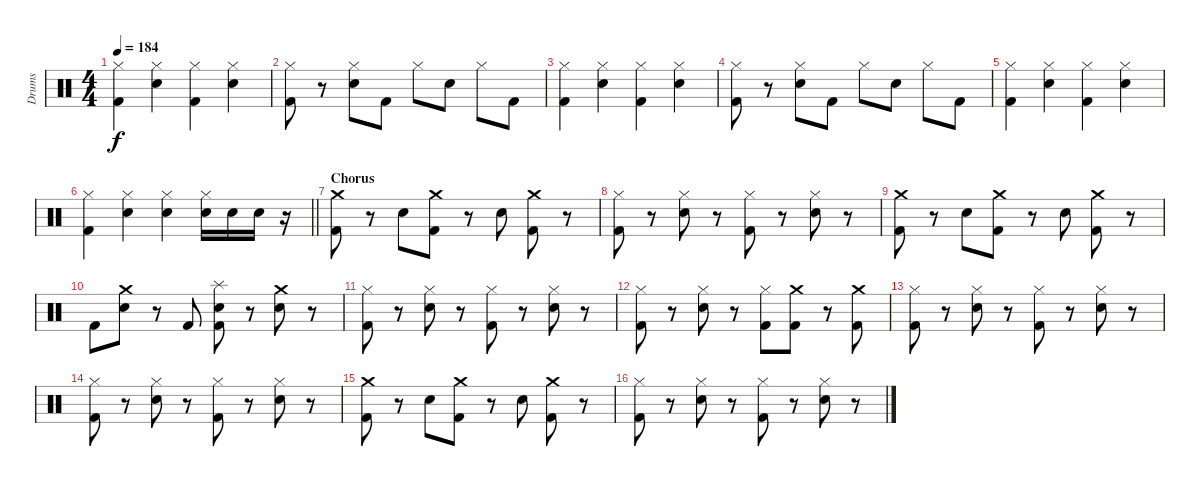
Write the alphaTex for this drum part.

\track ("Drums" "Drums") {instrument percussion}
\staff {score}
\articulation defaults
\ts (4 4)
\tempo 184
\clef neutral
\ks c
("Hi-Hat (closed)" "Kick (hit) 2").4{dy f} ("Hi-Hat (closed)" "Snare (hit) 2").4 ("Hi-Hat (closed)" "Kick (hit) 2").4 ("Hi-Hat (closed)" "Snare (hit) 2").4 |
("Hi-Hat (closed)" "Kick (hit) 2").8 r.8 ("Hi-Hat (closed)" "Snare (hit) 2").8 "Kick (hit) 2".8 "Hi-Hat (closed)".8 "Snare (hit) 2".8 "Hi-Hat (closed)".8 "Kick (hit) 2".8 |
("Hi-Hat (closed)" "Kick (hit) 2").4 ("Hi-Hat (closed)" "Snare (hit) 2").4 ("Hi-Hat (closed)" "Kick (hit) 2").4 ("Hi-Hat (closed)" "Snare (hit) 2").4 |
("Hi-Hat (closed)" "Kick (hit) 2").8 r.8 ("Hi-Hat (closed)" "Snare (hit) 2").8 "Kick (hit) 2".8 "Hi-Hat (closed)".8 "Snare (hit) 2".8 "Hi-Hat (closed)".8 "Kick (hit) 2".8 |
("Hi-Hat (closed)" "Kick (hit) 2").4 ("Hi-Hat (closed)" "Snare (hit) 2").4 ("Hi-Hat (closed)" "Kick (hit) 2").4 ("Hi-Hat (closed)" "Snare (hit) 2").4 |
\barLineRight lightlight
("Hi-Hat (closed)" "Kick (hit) 2").4 ("Hi-Hat (closed)" "Snare (hit) 2").4 ("Hi-Hat (closed)" "Snare (hit) 2").4 ("Hi-Hat (closed)" "Snare (hit) 2").16 "Snare (hit) 2".16 "Snare (hit) 2".16 r.16 |
\section ("" "Chorus")
("Crash medium (hit)" "Kick (hit) 2").8 r.8 "Snare (hit) 2".8 ("Crash medium (hit)" "Kick (hit) 2").8 r.8 "Snare (hit) 2".8 ("Crash medium (hit)" "Kick (hit) 2").8 r.8 |
("Hi-Hat (closed)" "Kick (hit) 2").8 r.8 ("Hi-Hat (closed)" "Snare (hit) 2").8 r.8 ("Hi-Hat (closed)" "Kick (hit) 2").8 r.8 ("Hi-Hat (closed)" "Snare (hit) 2").8 r.8 |
("Crash medium (hit)" "Kick (hit) 2").8 r.8 "Snare (hit) 2".8 ("Crash medium (hit)" "Kick (hit) 2").8 r.8 "Snare (hit) 2".8 ("Crash medium (hit)" "Kick (hit) 2").8 r.8 |
"Kick (hit) 2".8 ("Crash medium (hit)" "Snare (hit) 2").8 r.8 "Kick (hit) 2".8 ("Splash (hit)" "Snare (hit) 2" "Kick (hit) 2").8 r.8 ("Crash medium (hit)" "Snare (hit) 2").8 r.8 |
("Hi-Hat (closed)" "Kick (hit) 2").8 r.8 ("Hi-Hat (closed)" "Snare (hit) 2").8 r.8 ("Hi-Hat (closed)" "Kick (hit) 2").8 r.8 ("Hi-Hat (closed)" "Snare (hit) 2").8 r.8 |
("Hi-Hat (closed)" "Kick (hit) 2").8 r.8 ("Hi-Hat (closed)" "Snare (hit) 2").8 r.8 ("Hi-Hat (closed)" "Kick (hit) 2").8 ("Crash medium (hit)" "Kick (hit) 2").8 r.8 ("Crash medium (hit)" "Kick (hit) 2").8 |
("Hi-Hat (closed)" "Kick (hit) 2").8 r.8 ("Hi-Hat (closed)" "Snare (hit) 2").8 r.8 ("Hi-Hat (closed)" "Kick (hit) 2").8 r.8 ("Hi-Hat (closed)" "Snare (hit) 2").8 r.8 |
("Hi-Hat (closed)" "Kick (hit) 2").8 r.8 ("Hi-Hat (closed)" "Snare (hit) 2").8 r.8 ("Hi-Hat (closed)" "Kick (hit) 2").8 r.8 ("Hi-Hat (closed)" "Snare (hit) 2").8 r.8 |
("Crash medium (hit)" "Kick (hit) 2").8 r.8 "Snare (hit) 2".8 ("Crash medium (hit)" "Kick (hit) 2").8 r.8 "Snare (hit) 2".8 ("Crash medium (hit)" "Kick (hit) 2").8 r.8 |
("Hi-Hat (closed)" "Kick (hit) 2").8 r.8 ("Hi-Hat (closed)" "Snare (hit) 2").8 r.8 ("Hi-Hat (closed)" "Kick (hit) 2").8 r.8 ("Hi-Hat (closed)" "Snare (hit) 2").8 r.8
